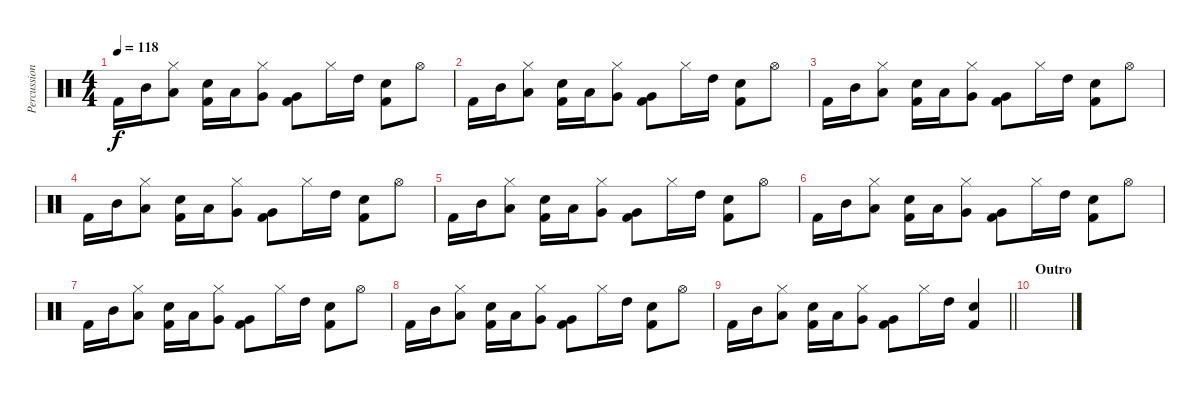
\track ("Percussion" "Percussion") {instrument percussion}
\staff {score}
\articulation defaults
\ts (4 4)
\tempo 118
\clef neutral
\ks c "Kick (hit) 2".16{dy f} "Mid Tom (hit)".16
("Hi-Hat (closed)" "Low Tom (hit)").8 ("Hand Clap (hit)" "Kick (hit) 2").16 "Low Tom (hit)".16 ("Hi-Hat (closed)" "Very Low Tom (hit)").8 ("Very Low Tom (hit)" "Kick (hit) 2").8 "Hi-Hat (closed)".16 "High Tom (hit)".16 ("Hand Clap (hit)" "Kick (hit) 2").8 "Hi-Hat (open)".8 |
"Kick (hit) 2".16 "Mid Tom (hit)".16 ("Hi-Hat (closed)" "Low Tom (hit)").8 ("Hand Clap (hit)" "Kick (hit) 2").16 "Low Tom (hit)".16 ("Hi-Hat (closed)" "Very Low Tom (hit)").8 ("Very Low Tom (hit)" "Kick (hit) 2").8 "Hi-Hat (closed)".16 "High Tom (hit)".16 ("Hand Clap (hit)" "Kick (hit) 2").8 "Hi-Hat (open)".8 |
"Kick (hit) 2".16 "Mid Tom (hit)".16 ("Hi-Hat (closed)" "Low Tom (hit)").8 ("Hand Clap (hit)" "Kick (hit) 2").16 "Low Tom (hit)".16 ("Hi-Hat (closed)" "Very Low Tom (hit)").8 ("Very Low Tom (hit)" "Kick (hit) 2").8 "Hi-Hat (closed)".16 "High Tom (hit)".16 ("Hand Clap (hit)" "Kick (hit) 2").8 "Hi-Hat (open)".8 |
"Kick (hit) 2".16 "Mid Tom (hit)".16 ("Hi-Hat (closed)" "Low Tom (hit)").8 ("Hand Clap (hit)" "Kick (hit) 2").16 "Low Tom (hit)".16 ("Hi-Hat (closed)" "Very Low Tom (hit)").8 ("Very Low Tom (hit)" "Kick (hit) 2").8 "Hi-Hat (closed)".16 "High Tom (hit)".16 ("Hand Clap (hit)" "Kick (hit) 2").8 "Hi-Hat (open)".8 |
"Kick (hit) 2".16 "Mid Tom (hit)".16 ("Hi-Hat (closed)" "Low Tom (hit)").8 ("Hand Clap (hit)" "Kick (hit) 2").16 "Low Tom (hit)".16 ("Hi-Hat (closed)" "Very Low Tom (hit)").8 ("Very Low Tom (hit)" "Kick (hit) 2").8 "Hi-Hat (closed)".16 "High Tom (hit)".16 ("Hand Clap (hit)" "Kick (hit) 2").8 "Hi-Hat (open)".8 |
"Kick (hit) 2".16 "Mid Tom (hit)".16 ("Hi-Hat (closed)" "Low Tom (hit)").8 ("Hand Clap (hit)" "Kick (hit) 2").16 "Low Tom (hit)".16 ("Hi-Hat (closed)" "Very Low Tom (hit)").8 ("Very Low Tom (hit)" "Kick (hit) 2").8 "Hi-Hat (closed)".16 "High Tom (hit)".16 ("Hand Clap (hit)" "Kick (hit) 2").8 "Hi-Hat (open)".8 |
"Kick (hit) 2".16 "Mid Tom (hit)".16 ("Hi-Hat (closed)" "Low Tom (hit)").8 ("Hand Clap (hit)" "Kick (hit) 2").16 "Low Tom (hit)".16 ("Hi-Hat (closed)" "Very Low Tom (hit)").8 ("Very Low Tom (hit)" "Kick (hit) 2").8 "Hi-Hat (closed)".16 "High Tom (hit)".16 ("Hand Clap (hit)" "Kick (hit) 2").8 "Hi-Hat (open)".8 |
"Kick (hit) 2".16 "Mid Tom (hit)".16 ("Hi-Hat (closed)" "Low Tom (hit)").8 ("Hand Clap (hit)" "Kick (hit) 2").16 "Low Tom (hit)".16 ("Hi-Hat (closed)" "Very Low Tom (hit)").8 ("Very Low Tom (hit)" "Kick (hit) 2").8 "Hi-Hat (closed)".16 "High Tom (hit)".16 ("Hand Clap (hit)" "Kick (hit) 2").8 "Hi-Hat (open)".8 |
\barLineRight lightlight "Kick (hit) 2".16 "Mid Tom (hit)".16
("Hi-Hat (closed)" "Low Tom (hit)").8 ("Hand Clap (hit)" "Kick (hit) 2").16 "Low Tom (hit)".16 ("Hi-Hat (closed)" "Very Low Tom (hit)").8 ("Very Low Tom (hit)" "Kick (hit) 2").8 "Hi-Hat (closed)".16 "High Tom (hit)".16 ("Hand Clap (hit)" "Kick (hit) 2").4 |
\section ("" "Outro")
